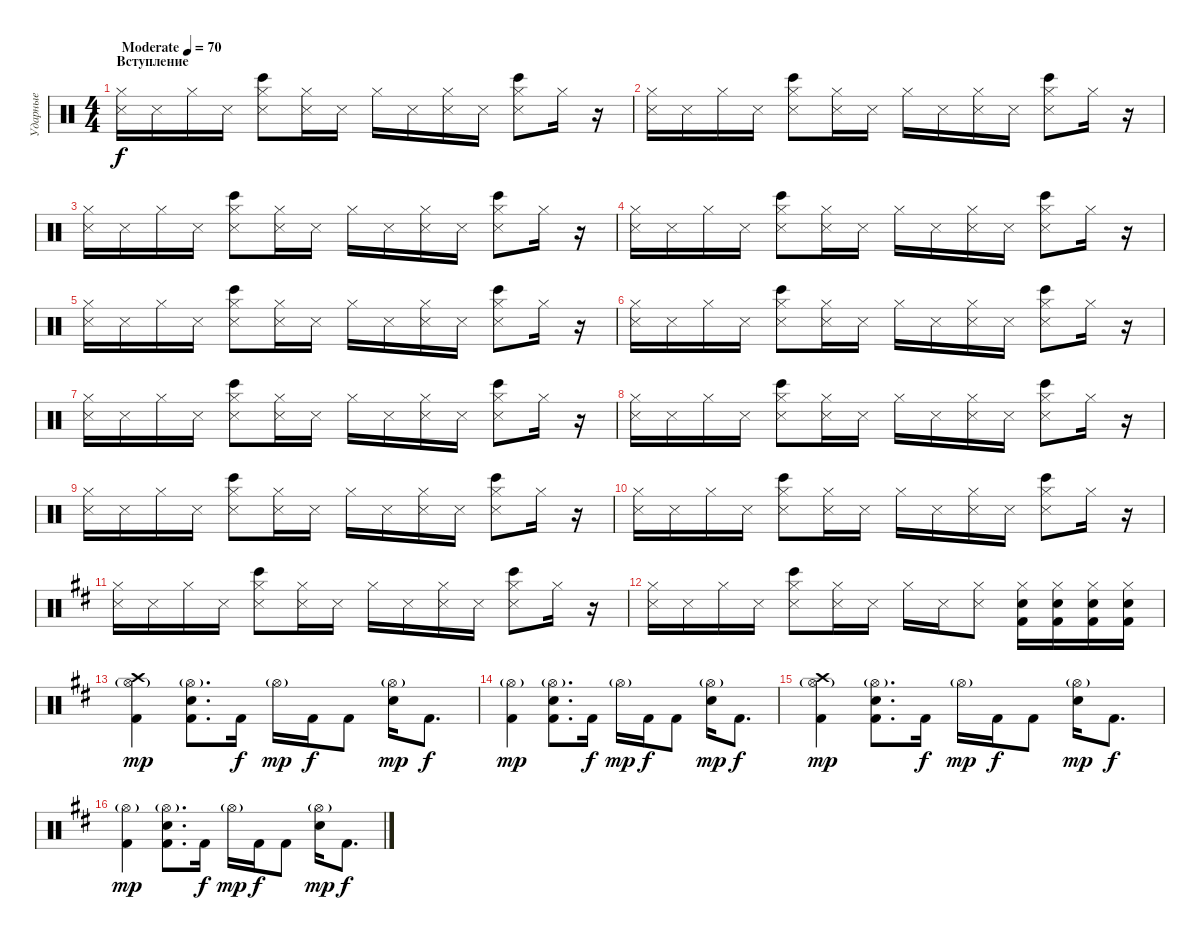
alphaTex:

\track ("Ударные" "Ударные") {instrument percussion}
\staff {score}
\articulation defaults
\ts (4 4)
\section ("" "Вступление")
\tempo (70 "Moderate")
\clef neutral
\ks c
("Hi-Hat (closed)" "Snare (side stick) 3").16{dy f} "Snare (side stick) 3".16 "Hi-Hat (closed)".16 "Snare (side stick) 3".16 ("Hi-Hat (closed)" "Bongo High (hit)" "Snare (side stick) 3").8 ("Hi-Hat (closed)" "Snare (side stick) 3").16 "Snare (side stick) 3".16 "Hi-Hat (closed)".16 "Snare (side stick) 3".16 ("Hi-Hat (closed)" "Snare (side stick) 3").16 "Snare (side stick) 3".16 ("Hi-Hat (closed)" "Bongo High (hit)" "Snare (side stick) 3").8 "Hi-Hat (closed)".16 r.16 |
("Hi-Hat (closed)" "Snare (side stick) 3").16 "Snare (side stick) 3".16 "Hi-Hat (closed)".16 "Snare (side stick) 3".16 ("Hi-Hat (closed)" "Bongo High (hit)" "Snare (side stick) 3").8 ("Hi-Hat (closed)" "Snare (side stick) 3").16 "Snare (side stick) 3".16 "Hi-Hat (closed)".16 "Snare (side stick) 3".16 ("Hi-Hat (closed)" "Snare (side stick) 3").16 "Snare (side stick) 3".16 ("Hi-Hat (closed)" "Bongo High (hit)" "Snare (side stick) 3").8 "Hi-Hat (closed)".16 r.16 |
("Hi-Hat (closed)" "Snare (side stick) 3").16 "Snare (side stick) 3".16 "Hi-Hat (closed)".16 "Snare (side stick) 3".16 ("Hi-Hat (closed)" "Bongo High (hit)" "Snare (side stick) 3").8 ("Hi-Hat (closed)" "Snare (side stick) 3").16 "Snare (side stick) 3".16 "Hi-Hat (closed)".16 "Snare (side stick) 3".16 ("Hi-Hat (closed)" "Snare (side stick) 3").16 "Snare (side stick) 3".16 ("Hi-Hat (closed)" "Bongo High (hit)" "Snare (side stick) 3").8 "Hi-Hat (closed)".16 r.16 |
("Hi-Hat (closed)" "Snare (side stick) 3").16 "Snare (side stick) 3".16 "Hi-Hat (closed)".16 "Snare (side stick) 3".16 ("Hi-Hat (closed)" "Bongo High (hit)" "Snare (side stick) 3").8 ("Hi-Hat (closed)" "Snare (side stick) 3").16 "Snare (side stick) 3".16 "Hi-Hat (closed)".16 "Snare (side stick) 3".16 ("Hi-Hat (closed)" "Snare (side stick) 3").16 "Snare (side stick) 3".16 ("Hi-Hat (closed)" "Bongo High (hit)" "Snare (side stick) 3").8 "Hi-Hat (closed)".16 r.16 |
("Hi-Hat (closed)" "Snare (side stick) 3").16 "Snare (side stick) 3".16 "Hi-Hat (closed)".16 "Snare (side stick) 3".16 ("Hi-Hat (closed)" "Bongo High (hit)" "Snare (side stick) 3").8 ("Hi-Hat (closed)" "Snare (side stick) 3").16 "Snare (side stick) 3".16 "Hi-Hat (closed)".16 "Snare (side stick) 3".16 ("Hi-Hat (closed)" "Snare (side stick) 3").16 "Snare (side stick) 3".16 ("Hi-Hat (closed)" "Bongo High (hit)" "Snare (side stick) 3").8 "Hi-Hat (closed)".16 r.16 |
("Hi-Hat (closed)" "Snare (side stick) 3").16 "Snare (side stick) 3".16 "Hi-Hat (closed)".16 "Snare (side stick) 3".16 ("Hi-Hat (closed)" "Bongo High (hit)" "Snare (side stick) 3").8 ("Hi-Hat (closed)" "Snare (side stick) 3").16 "Snare (side stick) 3".16 "Hi-Hat (closed)".16 "Snare (side stick) 3".16 ("Hi-Hat (closed)" "Snare (side stick) 3").16 "Snare (side stick) 3".16 ("Hi-Hat (closed)" "Bongo High (hit)" "Snare (side stick) 3").8 "Hi-Hat (closed)".16 r.16 |
("Hi-Hat (closed)" "Snare (side stick) 3").16 "Snare (side stick) 3".16 "Hi-Hat (closed)".16 "Snare (side stick) 3".16 ("Hi-Hat (closed)" "Bongo High (hit)" "Snare (side stick) 3").8 ("Hi-Hat (closed)" "Snare (side stick) 3").16 "Snare (side stick) 3".16 "Hi-Hat (closed)".16 "Snare (side stick) 3".16 ("Hi-Hat (closed)" "Snare (side stick) 3").16 "Snare (side stick) 3".16 ("Hi-Hat (closed)" "Bongo High (hit)" "Snare (side stick) 3").8 "Hi-Hat (closed)".16 r.16 |
("Hi-Hat (closed)" "Snare (side stick) 3").16 "Snare (side stick) 3".16 "Hi-Hat (closed)".16 "Snare (side stick) 3".16 ("Hi-Hat (closed)" "Bongo High (hit)" "Snare (side stick) 3").8 ("Hi-Hat (closed)" "Snare (side stick) 3").16 "Snare (side stick) 3".16 "Hi-Hat (closed)".16 "Snare (side stick) 3".16 ("Hi-Hat (closed)" "Snare (side stick) 3").16 "Snare (side stick) 3".16 ("Hi-Hat (closed)" "Bongo High (hit)" "Snare (side stick) 3").8 "Hi-Hat (closed)".16 r.16 |
("Hi-Hat (closed)" "Snare (side stick) 3").16 "Snare (side stick) 3".16 "Hi-Hat (closed)".16 "Snare (side stick) 3".16 ("Hi-Hat (closed)" "Bongo High (hit)" "Snare (side stick) 3").8 ("Hi-Hat (closed)" "Snare (side stick) 3").16 "Snare (side stick) 3".16 "Hi-Hat (closed)".16 "Snare (side stick) 3".16 ("Hi-Hat (closed)" "Snare (side stick) 3").16 "Snare (side stick) 3".16 ("Hi-Hat (closed)" "Bongo High (hit)" "Snare (side stick) 3").8 "Hi-Hat (closed)".16 r.16 |
("Hi-Hat (closed)" "Snare (side stick) 3").16 "Snare (side stick) 3".16 "Hi-Hat (closed)".16 "Snare (side stick) 3".16 ("Hi-Hat (closed)" "Bongo High (hit)" "Snare (side stick) 3").8 ("Hi-Hat (closed)" "Snare (side stick) 3").16 "Snare (side stick) 3".16 "Hi-Hat (closed)".16 "Snare (side stick) 3".16 ("Hi-Hat (closed)" "Snare (side stick) 3").16 "Snare (side stick) 3".16 ("Hi-Hat (closed)" "Bongo High (hit)" "Snare (side stick) 3").8 "Hi-Hat (closed)".16 r.16 |
\ks bminor
("Hi-Hat (closed)" "Snare (side stick) 3").16 "Snare (side stick) 3".16 "Hi-Hat (closed)".16 "Snare (side stick) 3".16 ("Hi-Hat (closed)" "Bongo High (hit)" "Snare (side stick) 3").8 ("Hi-Hat (closed)" "Snare (side stick) 3").16 "Snare (side stick) 3".16 "Hi-Hat (closed)".16 "Snare (side stick) 3".16 ("Hi-Hat (closed)" "Snare (side stick) 3").16 "Snare (side stick) 3".16 ("Hi-Hat (closed)" "Bongo High (hit)" "Snare (side stick) 3").8 "Hi-Hat (closed)".16 r.16 |
("Hi-Hat (closed)" "Snare (side stick) 3").16 "Snare (side stick) 3".16 "Hi-Hat (closed)".16 "Snare (side stick) 3".16 ("Hi-Hat (closed)" "Bongo High (hit)" "Snare (side stick) 3").8 ("Hi-Hat (closed)" "Snare (side stick) 3").16 "Snare (side stick) 3".16 "Hi-Hat (closed)".16 "Snare (side stick) 3".16 ("Hi-Hat (closed)" "Snare (side stick) 3").8 ("Hi-Hat (closed)" "Electric Snare (hit)" "Kick (hit) 2").16 ("Hi-Hat (closed)" "Electric Snare (hit)" "Kick (hit) 2").16 ("Hi-Hat (closed)" "Electric Snare (hit)" "Kick (hit) 2").16 ("Hi-Hat (closed)" "Electric Snare (hit)" "Kick (hit) 2").16 |
("Crash high (hit)" "Hi-Hat (open)"{g} "Kick (hit) 2").4{dy mp} ("Hi-Hat (open)"{g} "Electric Snare (hit)" "Kick (hit) 2").8{d} "Kick (hit) 2".16{dy f} "Hi-Hat (open)"{g}.16{dy mp} "Kick (hit) 2".16{dy f} "Kick (hit) 2".8 ("Hi-Hat (open)"{g} "Electric Snare (hit)").16{dy mp} "Kick (hit) 2".8{d dy f} |
("Hi-Hat (open)"{g} "Kick (hit) 2").4{dy mp} ("Hi-Hat (open)"{g} "Electric Snare (hit)" "Kick (hit) 2").8{d} "Kick (hit) 2".16{dy f} "Hi-Hat (open)"{g}.16{dy mp} "Kick (hit) 2".16{dy f} "Kick (hit) 2".8 ("Hi-Hat (open)"{g} "Electric Snare (hit)").16{dy mp} "Kick (hit) 2".8{d dy f} |
("Crash high (hit)" "Hi-Hat (open)"{g} "Kick (hit) 2").4{dy mp} ("Hi-Hat (open)"{g} "Electric Snare (hit)" "Kick (hit) 2").8{d} "Kick (hit) 2".16{dy f} "Hi-Hat (open)"{g}.16{dy mp} "Kick (hit) 2".16{dy f} "Kick (hit) 2".8 ("Hi-Hat (open)"{g} "Electric Snare (hit)").16{dy mp} "Kick (hit) 2".8{d dy f} |
("Hi-Hat (open)"{g} "Kick (hit) 2").4{dy mp} ("Hi-Hat (open)"{g} "Electric Snare (hit)" "Kick (hit) 2").8{d} "Kick (hit) 2".16{dy f} "Hi-Hat (open)"{g}.16{dy mp} "Kick (hit) 2".16{dy f} "Kick (hit) 2".8 ("Hi-Hat (open)"{g} "Electric Snare (hit)").16{dy mp} "Kick (hit) 2".8{d dy f}
